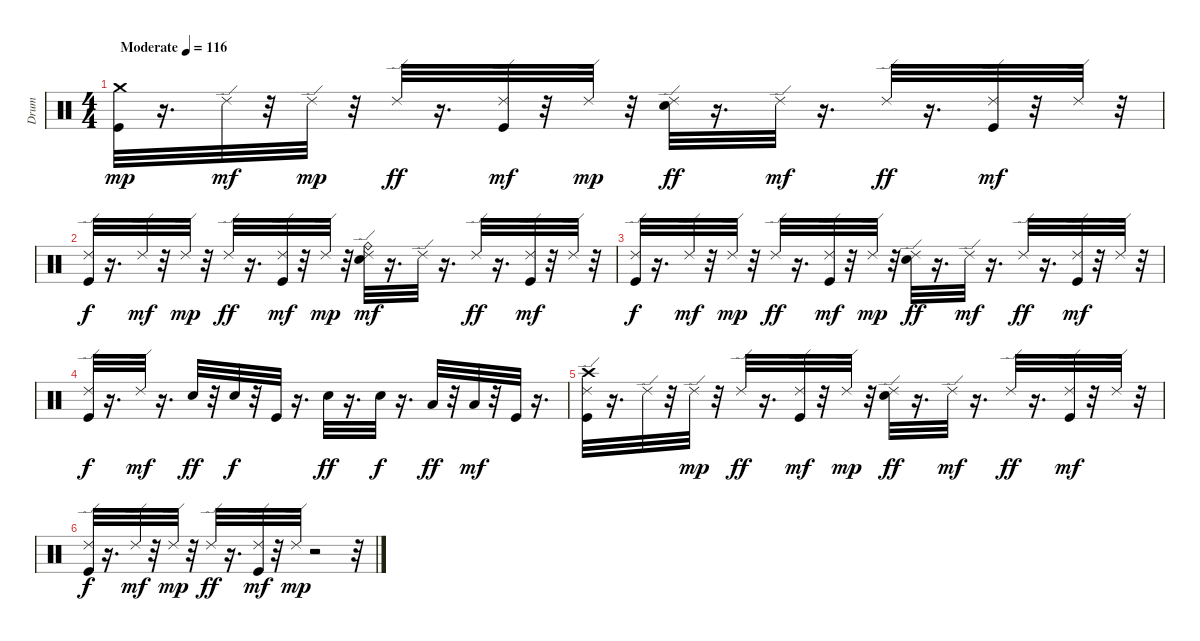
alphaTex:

\track ("Drum    " "Drum    ") {instrument percussion}
\staff {score}
\articulation defaults
\ts (4 4)
\tempo (116 "Moderate")
\clef neutral
\ks c
("Kick (hit)" "Crash medium (hit)").32{dy mp} r.16{d} "Ride (edge) 2".32{dy mf volume 12} r.32 "Ride (edge) 2".32{dy mp} r.32 "Ride (edge) 2".32{dy ff} r.16{d} ("Kick (hit)" "Ride (edge) 2").32{dy mf} r.32 "Ride (edge) 2".32{dy mp volume 11} r.32 ("Electric Snare (hit)" "Ride (edge) 2").32{dy ff} r.16{d} "Ride (edge) 2".32{dy mf} r.16{d} "Ride (edge) 2".32{dy ff volume 11} r.16{d} ("Kick (hit)" "Ride (edge) 2").32{dy mf} r.32 "Ride (edge) 2".32 r.32 |
("Kick (hit)" "Ride (edge) 2").32{dy f volume 10} r.16{d} "Ride (edge) 2".32{dy mf} r.32 "Ride (edge) 2".32{dy mp} r.32 "Ride (edge) 2".32{dy ff} r.16{d} ("Ride (edge) 2" "Kick (hit)").32{dy mf volume 9} r.32 "Ride (edge) 2".32{dy mp} r.32 ("Electric Snare (hit)" "Ride (edge) 2" "Ride (bell)").32{dy mf} r.16{d} "Ride (edge) 2".32 r.16{d} "Ride (edge) 2".32{dy ff} r.16{d} ("Ride (edge) 2" "Kick (hit)").32{dy mf volume 9} r.32 "Ride (edge) 2".32 r.32 |
("Ride (edge) 2" "Kick (hit)").32{dy f volume 8} r.16{d} "Ride (edge) 2".32{dy mf} r.32 "Ride (edge) 2".32{dy mp} r.32 "Ride (edge) 2".32{dy ff volume 8} r.16{d} ("Kick (hit)" "Ride (edge) 2").32{dy mf} r.32 "Ride (edge) 2".32{dy mp} r.32 ("Ride (edge) 2" "Electric Snare (hit)").32{dy ff} r.16{d} "Ride (edge) 2".32{dy mf volume 7} r.16{d} "Ride (edge) 2".32{dy ff volume 7} r.16{d} ("Ride (edge) 2" "Kick (hit)").32{dy mf} r.32 "Ride (edge) 2".32{volume 6} r.32 |
("Kick (hit)" "Ride (edge) 2").32{dy f} r.16{d} "Ride (edge) 2".32{dy mf volume 5} r.16{d} "Electric Snare (hit)".32{dy ff} r.32 "Electric Snare (hit)".32{dy f} r.32 "Kick (hit)".32 r.16{d} "Electric Snare (hit)".32{dy ff} r.16{d} "Electric Snare (hit)".32{dy f} r.16{d} "Low Tom (hit)".32{dy ff volume 5} r.32 "Low Tom (hit)".32{dy mf} r.32 "Kick (hit)".32 r.16{d} |
("Ride (edge) 2" "Kick (hit)" "Crash high (hit)").32{volume 4} r.16{d} "Ride (edge) 2".32 r.32 "Ride (edge) 2".32{dy mp} r.32 "Ride (edge) 2".32{dy ff} r.16{d} ("Ride (edge) 2" "Kick (hit)").32{dy mf} r.32 "Ride (edge) 2".32{dy mp volume 4} r.32 ("Electric Snare (hit)" "Ride (edge) 2").32{dy ff} r.16{d} "Ride (edge) 2".32{dy mf} r.16{d} "Ride (edge) 2".32{dy ff} r.16{d} ("Ride (edge) 2" "Kick (hit)").32{dy mf volume 3} r.32 "Ride (edge) 2".32 r.32 |
("Kick (hit)" "Ride (edge) 2").32{dy f} r.16{d} "Ride (edge) 2".32{dy mf} r.32 "Ride (edge) 2".32{dy mp volume 2} r.32 "Ride (edge) 2".32{dy ff} r.16{d} ("Ride (edge) 2" "Kick (hit)").32{dy mf volume 1} r.32 "Ride (edge) 2".32{dy mp} r.2 r.32
